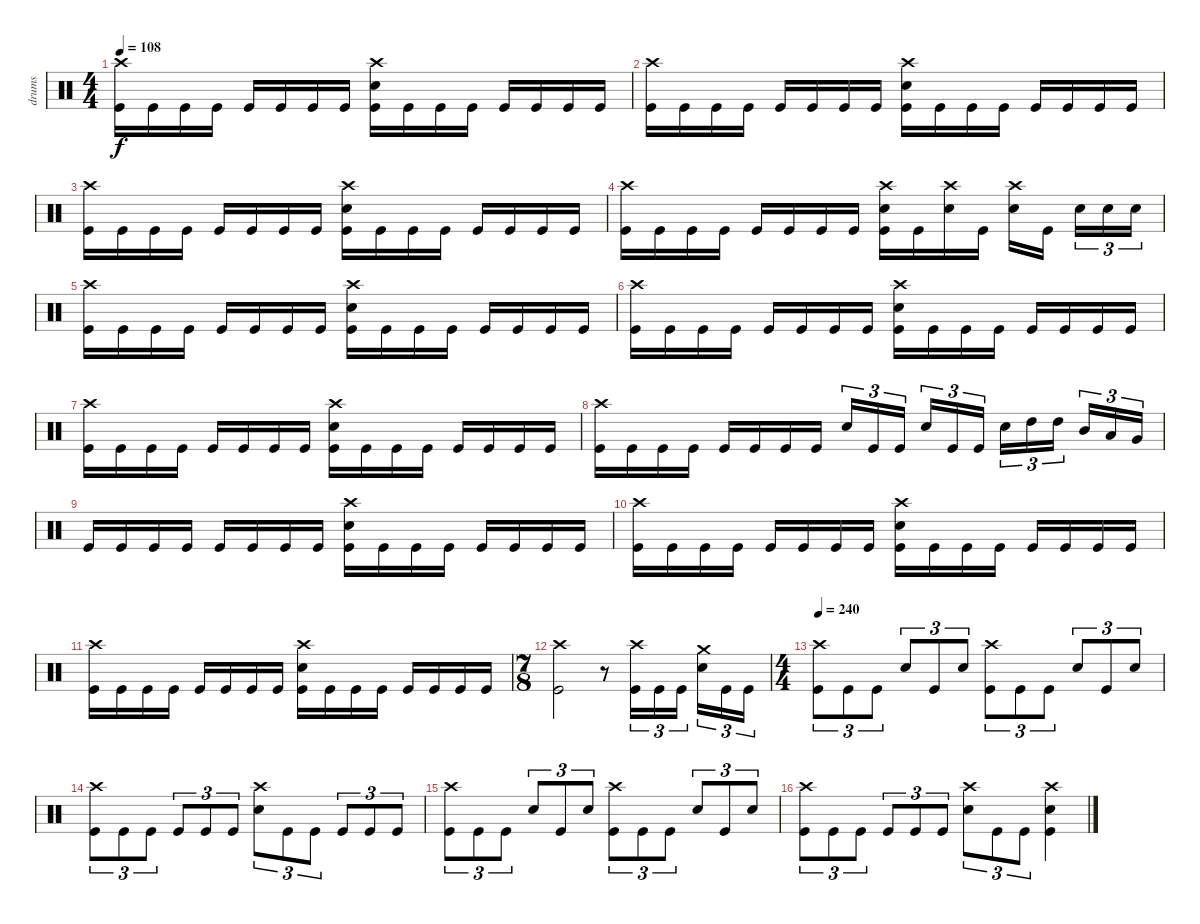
\track ("drums" "drums") {instrument percussion}
\staff {score}
\articulation defaults
\ts (4 4)
\tempo 108
\clef neutral
\ks c
("Crash high (hit)" "Kick (hit)").16{dy f} "Kick (hit)".16 "Kick (hit)".16 "Kick (hit)".16 "Kick (hit)".16 "Kick (hit)".16 "Kick (hit)".16 "Kick (hit)".16 ("Crash high (hit)" "Electric Snare (hit)" "Kick (hit)").16 "Kick (hit)".16 "Kick (hit)".16 "Kick (hit)".16 "Kick (hit)".16 "Kick (hit)".16 "Kick (hit)".16 "Kick (hit)".16 |
("Crash high (hit)" "Kick (hit)").16 "Kick (hit)".16 "Kick (hit)".16 "Kick (hit)".16 "Kick (hit)".16 "Kick (hit)".16 "Kick (hit)".16 "Kick (hit)".16 ("Crash high (hit)" "Electric Snare (hit)" "Kick (hit)").16 "Kick (hit)".16 "Kick (hit)".16 "Kick (hit)".16 "Kick (hit)".16 "Kick (hit)".16 "Kick (hit)".16 "Kick (hit)".16 |
("Crash high (hit)" "Kick (hit)").16 "Kick (hit)".16 "Kick (hit)".16 "Kick (hit)".16 "Kick (hit)".16 "Kick (hit)".16 "Kick (hit)".16 "Kick (hit)".16 ("Crash high (hit)" "Electric Snare (hit)" "Kick (hit)").16 "Kick (hit)".16 "Kick (hit)".16 "Kick (hit)".16 "Kick (hit)".16 "Kick (hit)".16 "Kick (hit)".16 "Kick (hit)".16 |
("Crash high (hit)" "Kick (hit)").16 "Kick (hit)".16 "Kick (hit)".16 "Kick (hit)".16 "Kick (hit)".16 "Kick (hit)".16 "Kick (hit)".16 "Kick (hit)".16 ("Crash high (hit)" "Electric Snare (hit)" "Kick (hit)").16 "Kick (hit)".16 ("Crash high (hit)" "Electric Snare (hit)").16 "Kick (hit)".16 ("Crash high (hit)" "Electric Snare (hit)").16 "Kick (hit)".16{beam splitsecondary} "Electric Snare (hit)".16{tu (3 2)} "Electric Snare (hit)".16{tu (3 2)} "Electric Snare (hit)".16{tu (3 2)} |
("Crash high (hit)" "Kick (hit)").16 "Kick (hit)".16 "Kick (hit)".16 "Kick (hit)".16 "Kick (hit)".16 "Kick (hit)".16 "Kick (hit)".16 "Kick (hit)".16 ("Crash high (hit)" "Electric Snare (hit)" "Kick (hit)").16 "Kick (hit)".16 "Kick (hit)".16 "Kick (hit)".16 "Kick (hit)".16 "Kick (hit)".16 "Kick (hit)".16 "Kick (hit)".16 |
("Crash high (hit)" "Kick (hit)").16 "Kick (hit)".16 "Kick (hit)".16 "Kick (hit)".16 "Kick (hit)".16 "Kick (hit)".16 "Kick (hit)".16 "Kick (hit)".16 ("Crash high (hit)" "Electric Snare (hit)" "Kick (hit)").16 "Kick (hit)".16 "Kick (hit)".16 "Kick (hit)".16 "Kick (hit)".16 "Kick (hit)".16 "Kick (hit)".16 "Kick (hit)".16 |
("Crash high (hit)" "Kick (hit)").16 "Kick (hit)".16 "Kick (hit)".16 "Kick (hit)".16 "Kick (hit)".16 "Kick (hit)".16 "Kick (hit)".16 "Kick (hit)".16 ("Crash high (hit)" "Electric Snare (hit)" "Kick (hit)").16 "Kick (hit)".16 "Kick (hit)".16 "Kick (hit)".16 "Kick (hit)".16 "Kick (hit)".16 "Kick (hit)".16 "Kick (hit)".16 |
("Crash high (hit)" "Kick (hit)").16 "Kick (hit)".16 "Kick (hit)".16 "Kick (hit)".16 "Kick (hit)".16 "Kick (hit)".16 "Kick (hit)".16 "Kick (hit)".16 "Electric Snare (hit)".16{tu (3 2)} "Kick (hit)".16{tu (3 2)} "Kick (hit)".16{tu (3 2) beam splitsecondary} "Electric Snare (hit)".16{tu (3 2)} "Kick (hit)".16{tu (3 2)} "Kick (hit)".16{tu (3 2)} "Electric Snare (hit)".16{tu (3 2)} "High Tom (hit)".16{tu (3 2)} "High Tom (hit)".16{tu (3 2) beam splitsecondary} "Mid Tom (hit)".16{tu (3 2)} "Low Tom (hit)".16{tu (3 2)} "Very Low Tom (hit)".16{tu (3 2)} |
"Kick (hit)".16 "Kick (hit)".16 "Kick (hit)".16 "Kick (hit)".16 "Kick (hit)".16 "Kick (hit)".16 "Kick (hit)".16 "Kick (hit)".16 ("Crash high (hit)" "Electric Snare (hit)" "Kick (hit)").16 "Kick (hit)".16 "Kick (hit)".16 "Kick (hit)".16 "Kick (hit)".16 "Kick (hit)".16 "Kick (hit)".16 "Kick (hit)".16 |
("Crash high (hit)" "Kick (hit)").16 "Kick (hit)".16 "Kick (hit)".16 "Kick (hit)".16 "Kick (hit)".16 "Kick (hit)".16 "Kick (hit)".16 "Kick (hit)".16 ("Crash high (hit)" "Electric Snare (hit)" "Kick (hit)").16 "Kick (hit)".16 "Kick (hit)".16 "Kick (hit)".16 "Kick (hit)".16 "Kick (hit)".16 "Kick (hit)".16 "Kick (hit)".16 |
("Crash high (hit)" "Kick (hit)").16 "Kick (hit)".16 "Kick (hit)".16 "Kick (hit)".16 "Kick (hit)".16 "Kick (hit)".16 "Kick (hit)".16 "Kick (hit)".16 ("Crash high (hit)" "Electric Snare (hit)" "Kick (hit)").16 "Kick (hit)".16 "Kick (hit)".16 "Kick (hit)".16 "Kick (hit)".16 "Kick (hit)".16 "Kick (hit)".16 "Kick (hit)".16 |
\ts (7 8)
("Crash high (hit)" "Kick (hit)").2 r.8 ("Crash high (hit)" "Kick (hit)").16{tu (3 2)} "Kick (hit)".16{tu (3 2)} "Kick (hit)".16{tu (3 2)} ("Crash medium (hit)" "Electric Snare (hit)").16{tu (3 2)} "Kick (hit)".16{tu (3 2)} "Kick (hit)".16{tu (3 2)} |
\ts (4 4)
\tempo 240
("Crash high (hit)" "Kick (hit)").8{tu (3 2)} "Kick (hit)".8{tu (3 2)} "Kick (hit)".8{tu (3 2)} "Electric Snare (hit)".8{tu (3 2)} "Kick (hit)".8{tu (3 2)} "Electric Snare (hit)".8{tu (3 2)} ("Crash high (hit)" "Kick (hit)").8{tu (3 2)} "Kick (hit)".8{tu (3 2)} "Kick (hit)".8{tu (3 2)} "Electric Snare (hit)".8{tu (3 2)} "Kick (hit)".8{tu (3 2)} "Electric Snare (hit)".8{tu (3 2)} |
("Crash high (hit)" "Kick (hit)").8{tu (3 2)} "Kick (hit)".8{tu (3 2)} "Kick (hit)".8{tu (3 2)} "Kick (hit)".8{tu (3 2)} "Kick (hit)".8{tu (3 2)} "Kick (hit)".8{tu (3 2)} ("Crash high (hit)" "Electric Snare (hit)").8{tu (3 2)} "Kick (hit)".8{tu (3 2)} "Kick (hit)".8{tu (3 2)} "Kick (hit)".8{tu (3 2)} "Kick (hit)".8{tu (3 2)} "Kick (hit)".8{tu (3 2)} |
("Crash high (hit)" "Kick (hit)").8{tu (3 2)} "Kick (hit)".8{tu (3 2)} "Kick (hit)".8{tu (3 2)} "Electric Snare (hit)".8{tu (3 2)} "Kick (hit)".8{tu (3 2)} "Electric Snare (hit)".8{tu (3 2)} ("Crash high (hit)" "Kick (hit)").8{tu (3 2)} "Kick (hit)".8{tu (3 2)} "Kick (hit)".8{tu (3 2)} "Electric Snare (hit)".8{tu (3 2)} "Kick (hit)".8{tu (3 2)} "Electric Snare (hit)".8{tu (3 2)} |
("Crash high (hit)" "Kick (hit)").8{tu (3 2)} "Kick (hit)".8{tu (3 2)} "Kick (hit)".8{tu (3 2)} "Kick (hit)".8{tu (3 2)} "Kick (hit)".8{tu (3 2)} "Kick (hit)".8{tu (3 2)} ("Crash high (hit)" "Electric Snare (hit)").8{tu (3 2)} "Kick (hit)".8{tu (3 2)} "Kick (hit)".8{tu (3 2)} ("Crash high (hit)" "Electric Snare (hit)" "Kick (hit)").4
